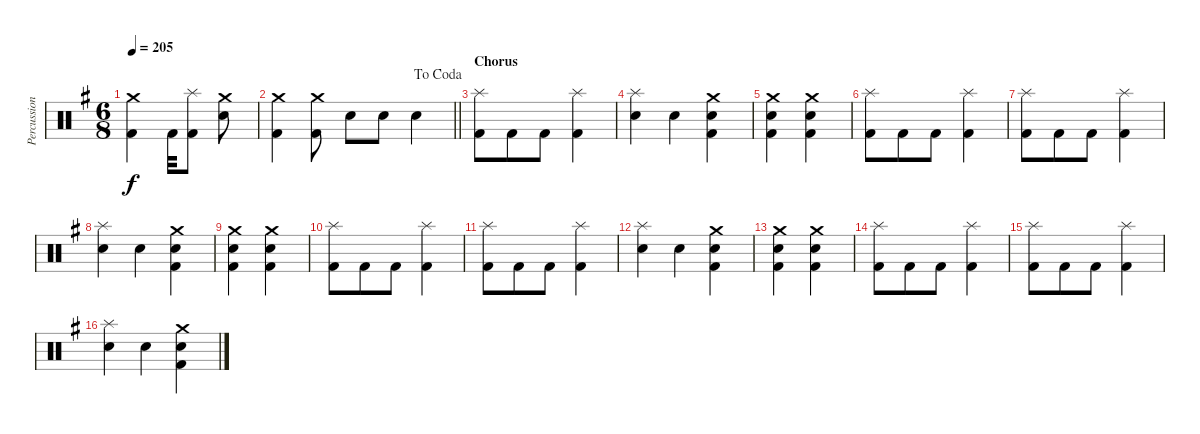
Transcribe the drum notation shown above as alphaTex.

\track ("Percussion" "Percussion") {instrument percussion}
\staff {score}
\articulation defaults
\ts (6 8)
\tempo 205
\clef neutral
\ks g
("Crash medium (hit)" "Kick (hit) 2").4{dy f} "Kick (hit) 2".32 ("Splash (hit)" "Kick (hit) 2").8 ("Crash medium (hit)" "Electric Snare (hit)").8 |
\jump dacoda
\barLineRight lightlight
("Crash medium (hit)" "Kick (hit) 2").4 ("Crash medium (hit)" "Kick (hit) 2").8 "Electric Snare (hit)".8 "Electric Snare (hit)".8 "Electric Snare (hit)".4 |
\section ("" "Chorus")
("Splash (hit)" "Kick (hit) 2").8 "Kick (hit) 2".8 "Kick (hit) 2".8 ("Splash (hit)" "Kick (hit) 2").4 |
("Splash (hit)" "Electric Snare (hit)").4 "Snare (hit)".4 ("Crash medium (hit)" "Kick (hit) 2" "Electric Snare (hit)").4 |
("Crash medium (hit)" "Kick (hit) 2" "Electric Snare (hit)").4 ("Crash medium (hit)" "Kick (hit) 2" "Electric Snare (hit)").4 |
("Splash (hit)" "Kick (hit) 2").8 "Kick (hit) 2".8 "Kick (hit) 2".8 ("Splash (hit)" "Kick (hit) 2").4 |
("Splash (hit)" "Kick (hit) 2").8 "Kick (hit) 2".8 "Kick (hit) 2".8 ("Splash (hit)" "Kick (hit) 2").4 |
("Splash (hit)" "Electric Snare (hit)").4 "Snare (hit)".4 ("Crash medium (hit)" "Kick (hit) 2" "Electric Snare (hit)").4 |
("Crash medium (hit)" "Kick (hit) 2" "Electric Snare (hit)").4 ("Crash medium (hit)" "Kick (hit) 2" "Electric Snare (hit)").4 |
("Splash (hit)" "Kick (hit) 2").8 "Kick (hit) 2".8 "Kick (hit) 2".8 ("Splash (hit)" "Kick (hit) 2").4 |
("Splash (hit)" "Kick (hit) 2").8 "Kick (hit) 2".8 "Kick (hit) 2".8 ("Splash (hit)" "Kick (hit) 2").4 |
("Splash (hit)" "Electric Snare (hit)").4 "Snare (hit)".4 ("Crash medium (hit)" "Kick (hit) 2" "Electric Snare (hit)").4 |
("Crash medium (hit)" "Kick (hit) 2" "Electric Snare (hit)").4 ("Crash medium (hit)" "Kick (hit) 2" "Electric Snare (hit)").4 |
("Splash (hit)" "Kick (hit) 2").8 "Kick (hit) 2".8 "Kick (hit) 2".8 ("Splash (hit)" "Kick (hit) 2").4 |
("Splash (hit)" "Kick (hit) 2").8 "Kick (hit) 2".8 "Kick (hit) 2".8 ("Splash (hit)" "Kick (hit) 2").4 |
("Splash (hit)" "Electric Snare (hit)").4 "Snare (hit)".4 ("Crash medium (hit)" "Kick (hit) 2" "Electric Snare (hit)").4
